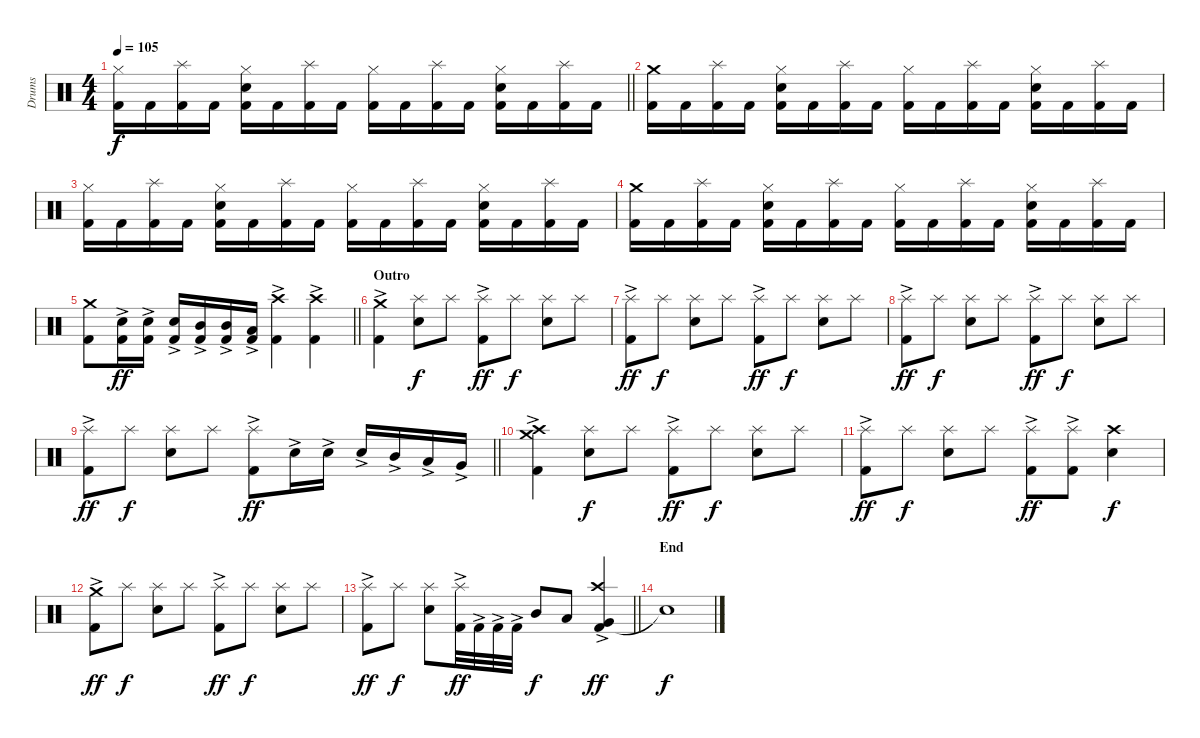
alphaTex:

\track ("Drums" "Drums") {instrument percussion}
\staff {score}
\articulation defaults
\ts (4 4)
\tempo 105
\clef neutral
\barLineRight lightlight
\ks c
("Kick (hit) 2" "Hi-Hat (closed)").16{dy f} "Kick (hit) 2".16 ("Kick (hit) 2" "Splash (hit)").16 "Kick (hit) 2".16 ("Kick (hit) 2" "Snare (hit) 2" "Hi-Hat (closed)").16 "Kick (hit) 2".16 ("Kick (hit) 2" "Splash (hit)").16 "Kick (hit) 2".16 ("Kick (hit) 2" "Hi-Hat (closed)").16 "Kick (hit) 2".16 ("Kick (hit) 2" "Splash (hit)").16 "Kick (hit) 2".16 ("Kick (hit) 2" "Snare (hit) 2" "Hi-Hat (closed)").16 "Kick (hit) 2".16 ("Kick (hit) 2" "Splash (hit)").16 "Kick (hit) 2".16 |
\section ("" "")
("Kick (hit) 2" "Crash medium (hit)").16 "Kick (hit) 2".16 ("Kick (hit) 2" "Splash (hit)").16 "Kick (hit) 2".16 ("Kick (hit) 2" "Snare (hit) 2" "Hi-Hat (closed)").16 "Kick (hit) 2".16 ("Kick (hit) 2" "Splash (hit)").16 "Kick (hit) 2".16 ("Kick (hit) 2" "Hi-Hat (closed)").16 "Kick (hit) 2".16 ("Kick (hit) 2" "Splash (hit)").16 "Kick (hit) 2".16 ("Kick (hit) 2" "Snare (hit) 2" "Hi-Hat (closed)").16 "Kick (hit) 2".16 ("Kick (hit) 2" "Splash (hit)").16 "Kick (hit) 2".16 |
("Kick (hit) 2" "Hi-Hat (closed)").16 "Kick (hit) 2".16 ("Kick (hit) 2" "Splash (hit)").16 "Kick (hit) 2".16 ("Kick (hit) 2" "Snare (hit) 2" "Hi-Hat (closed)").16 "Kick (hit) 2".16 ("Kick (hit) 2" "Splash (hit)").16 "Kick (hit) 2".16 ("Kick (hit) 2" "Hi-Hat (closed)").16 "Kick (hit) 2".16 ("Kick (hit) 2" "Splash (hit)").16 "Kick (hit) 2".16 ("Kick (hit) 2" "Snare (hit) 2" "Hi-Hat (closed)").16 "Kick (hit) 2".16 ("Kick (hit) 2" "Splash (hit)").16 "Kick (hit) 2".16 |
("Kick (hit) 2" "Crash medium (hit)").16 "Kick (hit) 2".16 ("Kick (hit) 2" "Splash (hit)").16 "Kick (hit) 2".16 ("Kick (hit) 2" "Snare (hit) 2" "Hi-Hat (closed)").16 "Kick (hit) 2".16 ("Kick (hit) 2" "Splash (hit)").16 "Kick (hit) 2".16 ("Kick (hit) 2" "Hi-Hat (closed)").16 "Kick (hit) 2".16 ("Kick (hit) 2" "Splash (hit)").16 "Kick (hit) 2".16 ("Kick (hit) 2" "Snare (hit) 2" "Hi-Hat (closed)").16 "Kick (hit) 2".16 ("Kick (hit) 2" "Splash (hit)").16 "Kick (hit) 2".16 |
\barLineRight lightlight
("Kick (hit) 2" "Crash medium (hit)").8 ("Kick (hit) 2" "Snare (hit) 2"{ac}).16{dy ff} ("Kick (hit) 2" "Snare (hit) 2"{ac}).16 ("Kick (hit) 2" "Snare (hit) 2"{ac}).16 ("Kick (hit) 2" "Mid Tom (hit)"{ac}).16 ("Kick (hit) 2" "Mid Tom (hit)"{ac}).16 ("Kick (hit) 2" "Low Tom (hit)"{ac}).16 ("Kick (hit) 2"{ac} "Crash high (hit)").4 ("Kick (hit) 2"{ac} "Crash high (hit)").4 |
\section ("" "Outro")
("Kick (hit) 2"{ac} "Crash medium (hit)").4 ("Snare (hit) 2" "Splash (hit)").8{dy f} "Splash (hit)".8 ("Kick (hit) 2"{ac} "Splash (hit)").8{dy ff} "Splash (hit)".8{dy f} ("Snare (hit) 2" "Splash (hit)").8 "Splash (hit)".8 |
("Kick (hit) 2"{ac} "Splash (hit)").8{dy ff} "Splash (hit)".8{dy f} ("Snare (hit) 2" "Splash (hit)").8 "Splash (hit)".8 ("Kick (hit) 2"{ac} "Splash (hit)").8{dy ff} "Splash (hit)".8{dy f} ("Snare (hit) 2" "Splash (hit)").8 "Splash (hit)".8 |
("Kick (hit) 2"{ac} "Splash (hit)").8{dy ff} "Splash (hit)".8{dy f} ("Snare (hit) 2" "Splash (hit)").8 "Splash (hit)".8 ("Kick (hit) 2"{ac} "Splash (hit)").8{dy ff} "Splash (hit)".8{dy f} ("Snare (hit) 2" "Splash (hit)").8 "Splash (hit)".8 |
\barLineRight lightlight
("Kick (hit) 2"{ac} "Splash (hit)").8{dy ff} "Splash (hit)".8{dy f} ("Snare (hit) 2" "Splash (hit)").8 "Splash (hit)".8 ("Kick (hit) 2"{ac} "Splash (hit)").8{dy ff} "Snare (hit) 2"{ac}.16 "Snare (hit) 2"{ac}.16 "Snare (hit) 2"{ac}.16 "Mid Tom (hit)"{ac}.16 "Low Tom (hit)"{ac}.16 "Very Low Tom (hit)"{ac}.16 |
\section ("" "")
("Kick (hit) 2"{ac} "Crash medium (hit)" "Crash high (hit)").4 ("Snare (hit) 2" "Splash (hit)").8{dy f} "Splash (hit)".8 ("Kick (hit) 2"{ac} "Splash (hit)").8{dy ff} "Splash (hit)".8{dy f} ("Snare (hit) 2" "Splash (hit)").8 "Splash (hit)".8 |
("Kick (hit) 2"{ac} "Splash (hit)").8{dy ff} "Splash (hit)".8{dy f} ("Snare (hit) 2" "Splash (hit)").8 "Splash (hit)".8 ("Kick (hit) 2"{ac} "Splash (hit)").8{dy ff} ("Kick (hit) 2"{ac} "Splash (hit)").8 ("Snare (hit) 2" "Crash high (hit)").4{dy f} |
("Kick (hit) 2"{ac} "Crash medium (hit)").8{dy ff} "Splash (hit)".8{dy f} ("Snare (hit) 2" "Splash (hit)").8 "Splash (hit)".8 ("Kick (hit) 2"{ac} "Splash (hit)").8{dy ff} "Splash (hit)".8{dy f} ("Snare (hit) 2" "Splash (hit)").8 "Splash (hit)".8 |
\barLineRight lightlight
("Kick (hit) 2"{ac} "Splash (hit)").8{dy ff} "Splash (hit)".8{dy f} ("Snare (hit) 2" "Splash (hit)").8 ("Kick (hit) 2"{ac} "Splash (hit)").32{dy ff} "Kick (hit) 2"{ac}.32 "Kick (hit) 2"{ac}.32 "Kick (hit) 2"{ac}.32 "Mid Tom (hit)".8{dy f} "Low Tom (hit)".8 ("Kick (hit) 2"{ac} "Very Low Tom (hit)" "Crash high (hit)").4{dy ff} |
\section ("" "End")
"Snare (hit)"{t}.1{dy f}
